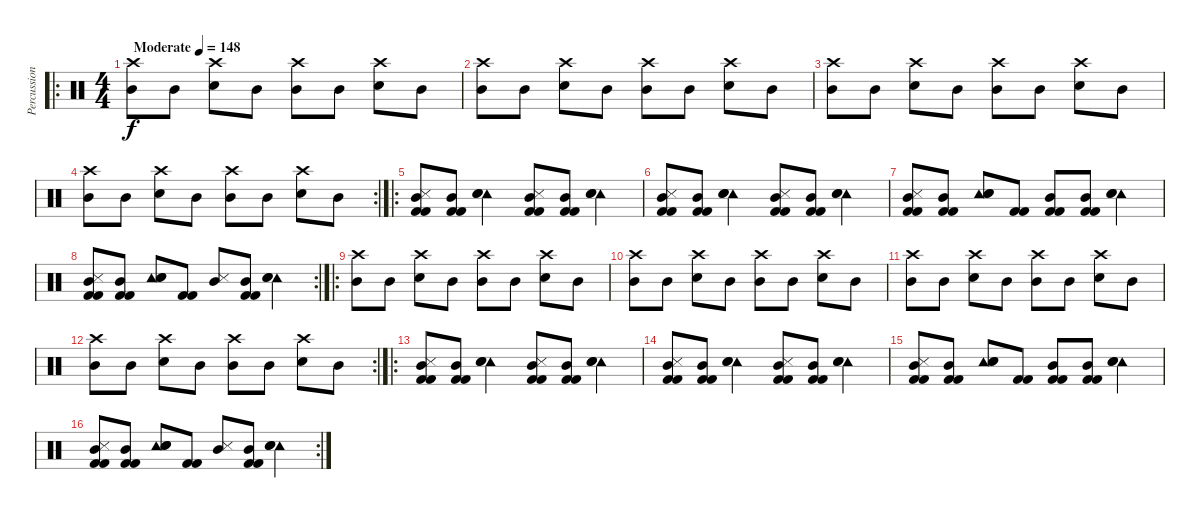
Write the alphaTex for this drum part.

\track ("Percussion" "Percussion") {instrument percussion}
\staff {score}
\articulation defaults
\ro
\ts (4 4)
\tempo (148 "Moderate")
\clef neutral
\ks c
("Crash high (hit)" "Mid Tom (hit)").8{dy f} "Mid Tom (hit)".8 ("Crash high (hit)" "Snare (hit) 2").8 "Mid Tom (hit)".8 ("Crash high (hit)" "Mid Tom (hit)").8 "Mid Tom (hit)".8 ("Crash high (hit)" "Snare (hit) 2").8 "Mid Tom (hit)".8 |
("Crash high (hit)" "Mid Tom (hit)").8 "Mid Tom (hit)".8 ("Crash high (hit)" "Snare (hit) 2").8 "Mid Tom (hit)".8 ("Crash high (hit)" "Mid Tom (hit)").8 "Mid Tom (hit)".8 ("Crash high (hit)" "Snare (hit) 2").8 "Mid Tom (hit)".8 |
("Crash high (hit)" "Mid Tom (hit)").8 "Mid Tom (hit)".8 ("Crash high (hit)" "Snare (hit) 2").8 "Mid Tom (hit)".8 ("Crash high (hit)" "Mid Tom (hit)").8 "Mid Tom (hit)".8 ("Crash high (hit)" "Snare (hit) 2").8 "Mid Tom (hit)".8 |
\rc 2
("Crash high (hit)" "Mid Tom (hit)").8 "Mid Tom (hit)".8 ("Crash high (hit)" "Snare (hit) 2").8 "Mid Tom (hit)".8 ("Crash high (hit)" "Mid Tom (hit)").8 "Mid Tom (hit)".8 ("Crash high (hit)" "Snare (hit) 2").8 "Mid Tom (hit)".8 |
\ro
("Metronome (hit)" "Mid Tom (hit)" "Kick (hit) 2" "Kick (hit) 2").8 ("Mid Tom (hit)" "Kick (hit) 2" "Kick (hit) 2").8 ("Tambourine (hit)" "Snare (hit) 2" "Snare (hit) 2").4 ("Metronome (hit)" "Mid Tom (hit)" "Kick (hit) 2" "Kick (hit) 2").8 ("Mid Tom (hit)" "Kick (hit) 2" "Kick (hit) 2").8 ("Tambourine (hit)" "Snare (hit) 2" "Snare (hit) 2").4 |
("Metronome (hit)" "Mid Tom (hit)" "Kick (hit) 2" "Kick (hit) 2").8 ("Mid Tom (hit)" "Kick (hit) 2" "Kick (hit) 2").8 ("Tambourine (hit)" "Snare (hit) 2" "Snare (hit) 2").4 ("Metronome (hit)" "Mid Tom (hit)" "Kick (hit) 2" "Kick (hit) 2").8 ("Mid Tom (hit)" "Kick (hit) 2" "Kick (hit) 2").8 ("Tambourine (hit)" "Snare (hit) 2" "Snare (hit) 2").4 |
("Metronome (hit)" "Mid Tom (hit)" "Kick (hit) 2" "Kick (hit) 2").8 ("Mid Tom (hit)" "Kick (hit) 2" "Kick (hit) 2").8 ("Tambourine (hit)" "Snare (hit) 2" "Snare (hit) 2").8 ("Kick (hit) 2" "Kick (hit) 2").8 ("Mid Tom (hit)" "Kick (hit) 2" "Kick (hit) 2").8 ("Mid Tom (hit)" "Kick (hit) 2" "Kick (hit) 2").8 ("Tambourine (hit)" "Snare (hit) 2" "Snare (hit) 2").4 |
\rc 2
("Metronome (hit)" "Mid Tom (hit)" "Kick (hit) 2" "Kick (hit) 2").8 ("Mid Tom (hit)" "Kick (hit) 2" "Kick (hit) 2").8 ("Tambourine (hit)" "Snare (hit) 2" "Snare (hit) 2").8 ("Kick (hit) 2" "Kick (hit) 2").8 ("Metronome (hit)" "Mid Tom (hit)").8 ("Mid Tom (hit)" "Kick (hit) 2" "Kick (hit) 2").8 ("Tambourine (hit)" "Snare (hit) 2" "Snare (hit) 2").4 |
\ro
("Crash high (hit)" "Mid Tom (hit)").8 "Mid Tom (hit)".8 ("Crash high (hit)" "Snare (hit) 2").8 "Mid Tom (hit)".8 ("Crash high (hit)" "Mid Tom (hit)").8 "Mid Tom (hit)".8 ("Crash high (hit)" "Snare (hit) 2").8 "Mid Tom (hit)".8 |
("Crash high (hit)" "Mid Tom (hit)").8 "Mid Tom (hit)".8 ("Crash high (hit)" "Snare (hit) 2").8 "Mid Tom (hit)".8 ("Crash high (hit)" "Mid Tom (hit)").8 "Mid Tom (hit)".8 ("Crash high (hit)" "Snare (hit) 2").8 "Mid Tom (hit)".8 |
("Crash high (hit)" "Mid Tom (hit)").8 "Mid Tom (hit)".8 ("Crash high (hit)" "Snare (hit) 2").8 "Mid Tom (hit)".8 ("Crash high (hit)" "Mid Tom (hit)").8 "Mid Tom (hit)".8 ("Crash high (hit)" "Snare (hit) 2").8 "Mid Tom (hit)".8 |
\rc 2
("Crash high (hit)" "Mid Tom (hit)").8 "Mid Tom (hit)".8 ("Crash high (hit)" "Snare (hit) 2").8 "Mid Tom (hit)".8 ("Crash high (hit)" "Mid Tom (hit)").8 "Mid Tom (hit)".8 ("Crash high (hit)" "Snare (hit) 2").8 "Mid Tom (hit)".8 |
\ro
("Metronome (hit)" "Mid Tom (hit)" "Kick (hit) 2" "Kick (hit) 2").8 ("Mid Tom (hit)" "Kick (hit) 2" "Kick (hit) 2").8 ("Tambourine (hit)" "Snare (hit) 2" "Snare (hit) 2").4 ("Metronome (hit)" "Mid Tom (hit)" "Kick (hit) 2" "Kick (hit) 2").8 ("Mid Tom (hit)" "Kick (hit) 2" "Kick (hit) 2").8 ("Tambourine (hit)" "Snare (hit) 2" "Snare (hit) 2").4 |
("Metronome (hit)" "Mid Tom (hit)" "Kick (hit) 2" "Kick (hit) 2").8 ("Mid Tom (hit)" "Kick (hit) 2" "Kick (hit) 2").8 ("Tambourine (hit)" "Snare (hit) 2" "Snare (hit) 2").4 ("Metronome (hit)" "Mid Tom (hit)" "Kick (hit) 2" "Kick (hit) 2").8 ("Mid Tom (hit)" "Kick (hit) 2" "Kick (hit) 2").8 ("Tambourine (hit)" "Snare (hit) 2" "Snare (hit) 2").4 |
("Metronome (hit)" "Mid Tom (hit)" "Kick (hit) 2" "Kick (hit) 2").8 ("Mid Tom (hit)" "Kick (hit) 2" "Kick (hit) 2").8 ("Tambourine (hit)" "Snare (hit) 2" "Snare (hit) 2").8 ("Kick (hit) 2" "Kick (hit) 2").8 ("Mid Tom (hit)" "Kick (hit) 2" "Kick (hit) 2").8 ("Mid Tom (hit)" "Kick (hit) 2" "Kick (hit) 2").8 ("Tambourine (hit)" "Snare (hit) 2" "Snare (hit) 2").4 |
\rc 2
("Metronome (hit)" "Mid Tom (hit)" "Kick (hit) 2" "Kick (hit) 2").8 ("Mid Tom (hit)" "Kick (hit) 2" "Kick (hit) 2").8 ("Tambourine (hit)" "Snare (hit) 2" "Snare (hit) 2").8 ("Kick (hit) 2" "Kick (hit) 2").8 ("Metronome (hit)" "Mid Tom (hit)").8 ("Mid Tom (hit)" "Kick (hit) 2" "Kick (hit) 2").8 ("Tambourine (hit)" "Snare (hit) 2" "Snare (hit) 2").4
